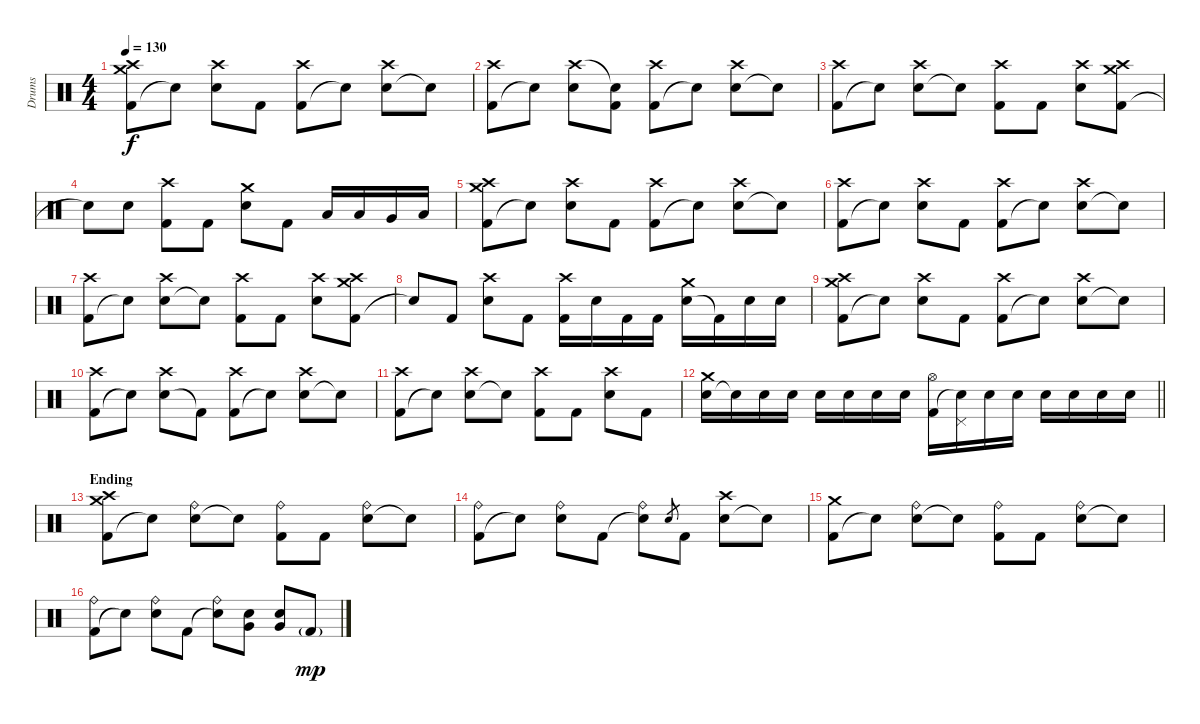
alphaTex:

\track ("Drums" "Drums") {instrument percussion}
\staff {score}
\articulation defaults
\ts (4 4)
\tempo 130
\clef neutral
\ks c
("Kick (hit) 2" "Crash medium (hit)" "Crash high (hit)").8{dy f} "Snare (hit)"{t}.8 ("Electric Snare (hit)" "Crash high (hit)").8 "Kick (hit) 2".8 ("Kick (hit) 2" "Crash high (hit)").8 "Snare (hit)"{t}.8 ("Electric Snare (hit)" "Crash high (hit)").8 "Snare (hit)"{t}.8 |
("Kick (hit) 2" "Crash high (hit)").8 "Snare (hit)"{t}.8 ("Electric Snare (hit)" "Crash high (hit)").8 ("Kick (hit) 2" "Snare (hit)"{t}).8 ("Kick (hit) 2" "Crash high (hit)").8 "Snare (hit)"{t}.8 ("Electric Snare (hit)" "Crash high (hit)").8 "Snare (hit)"{t}.8 |
("Kick (hit) 2" "Crash high (hit)").8 "Snare (hit)"{t}.8 ("Electric Snare (hit)" "Crash high (hit)").8 "Snare (hit)"{t}.8 ("Kick (hit) 2" "Crash high (hit)").8 "Kick (hit) 2".8 ("Electric Snare (hit)" "Crash high (hit)").8 ("Kick (hit) 2" "Crash medium (hit)" "Crash high (hit)").8 |
"Snare (hit)"{t}.8 "Electric Snare (hit)".8 ("Kick (hit) 2" "Crash high (hit)").8 "Kick (hit) 2".8 ("Electric Snare (hit)" "Crash medium (hit)").8 "Kick (hit) 2".8 "Low Tom (hit)".16 "Low Tom (hit)".16 "Very Low Tom (hit)".16 "Low Floor Tom (hit)".16 |
("Kick (hit) 2" "Crash medium (hit)" "Crash high (hit)").8 "Snare (hit)"{t}.8 ("Electric Snare (hit)" "Crash high (hit)").8 "Kick (hit) 2".8 ("Kick (hit) 2" "Crash high (hit)").8 "Snare (hit)"{t}.8 ("Electric Snare (hit)" "Crash high (hit)").8 "Snare (hit)"{t}.8 |
("Kick (hit) 2" "Crash high (hit)").8 "Snare (hit)"{t}.8 ("Electric Snare (hit)" "Crash high (hit)").8 "Kick (hit) 2".8 ("Kick (hit) 2" "Crash high (hit)").8 "Snare (hit)"{t}.8 ("Electric Snare (hit)" "Crash high (hit)").8 "Snare (hit)"{t}.8 |
("Kick (hit) 2" "Crash high (hit)").8 "Snare (hit)"{t}.8 ("Electric Snare (hit)" "Crash high (hit)").8 "Snare (hit)"{t}.8 ("Kick (hit) 2" "Crash high (hit)").8 "Kick (hit) 2".8 ("Electric Snare (hit)" "Crash high (hit)").8 ("Kick (hit) 2" "Crash medium (hit)" "Crash high (hit)").8 |
"Snare (hit)"{t}.8 "Kick (hit) 2".8 ("Electric Snare (hit)" "Crash high (hit)").8 "Kick (hit) 2".8 ("Kick (hit) 2" "Crash high (hit)").16 "Electric Snare (hit)".16 "Kick (hit) 2".16 "Kick (hit) 2".16 ("Electric Snare (hit)" "Crash medium (hit)").16 "Kick (hit) 2"{t}.16 "Electric Snare (hit)".16 "Electric Snare (hit)".16 |
("Kick (hit) 2" "Crash medium (hit)" "Crash high (hit)").8 "Snare (hit)"{t}.8 ("Electric Snare (hit)" "Crash high (hit)").8 "Kick (hit) 2".8 ("Kick (hit) 2" "Crash high (hit)").8 "Snare (hit)"{t}.8 ("Electric Snare (hit)" "Crash high (hit)").8 "Snare (hit)"{t}.8 |
("Kick (hit) 2" "Crash high (hit)").8 "Snare (hit)"{t}.8 ("Electric Snare (hit)" "Crash high (hit)").8 "Kick (hit) 2"{t}.8 ("Kick (hit) 2" "Crash high (hit)").8 "Snare (hit)"{t}.8 ("Electric Snare (hit)" "Crash high (hit)").8 "Snare (hit)"{t}.8 |
("Kick (hit) 2" "Crash high (hit)").8 "Snare (hit)"{t}.8 ("Electric Snare (hit)" "Crash high (hit)").8 "Snare (hit)"{t}.8 ("Kick (hit) 2" "Crash high (hit)").8 "Kick (hit) 2".8 ("Electric Snare (hit)" "Crash high (hit)").8 "Kick (hit) 2".8 |
\barLineRight lightlight
("Electric Snare (hit)" "Crash medium (hit)").16 "Electric Snare (hit)"{t}.16 "Electric Snare (hit)".16 "Electric Snare (hit)".16 "Electric Snare (hit)".16 "Electric Snare (hit)".16 "Electric Snare (hit)".16 "Electric Snare (hit)".16 ("Kick (hit) 2" "Hi-Hat (open)").16 ("Snare (hit)"{t} "Pedal Hi-Hat (hit)").16 "Electric Snare (hit)".16 "Electric Snare (hit)".16 "Electric Snare (hit)".16 "Electric Snare (hit)".16 "Electric Snare (hit)".16 "Electric Snare (hit)".16 |
\section ("" "Ending")
("Kick (hit) 2" "Crash medium (hit)" "Crash high (hit)").8 "Snare (hit)"{t}.8 ("Electric Snare (hit)" "Ride (bell)").8 "Snare (hit)"{t}.8 ("Kick (hit) 2" "Ride (bell)").8 "Kick (hit) 2".8 ("Electric Snare (hit)" "Ride (bell)").8 "Snare (hit)"{t}.8 |
("Kick (hit) 2" "Ride (bell)").8 "Snare (hit)"{t}.8 ("Electric Snare (hit)" "Ride (bell)").8 "Kick (hit) 2".8 ("Snare (hit)"{t} "Ride (bell)").8 "Electric Snare (hit)".8{gr} "Kick (hit) 2".8 ("Electric Snare (hit)" "Crash high (hit)").8 "Snare (hit)"{t}.8 |
("Kick (hit) 2" "Crash medium (hit)").8 "Snare (hit)"{t}.8 ("Electric Snare (hit)" "Ride (bell)").8 "Snare (hit)"{t}.8 ("Kick (hit) 2" "Ride (bell)").8 "Kick (hit) 2".8 ("Electric Snare (hit)" "Ride (bell)").8 "Snare (hit)"{t}.8 |
("Kick (hit) 2" "Ride (bell)").8 "Snare (hit)"{t}.8 ("Electric Snare (hit)" "Ride (bell)").8 "Kick (hit) 2".8 ("Snare (hit)"{t} "Ride (bell)").8 ("Electric Snare (hit)" "Very Low Tom (hit)").8 ("Electric Snare (hit)" "Very Low Tom (hit)").8 "Kick (hit) 2"{g}.8{dy mp}
